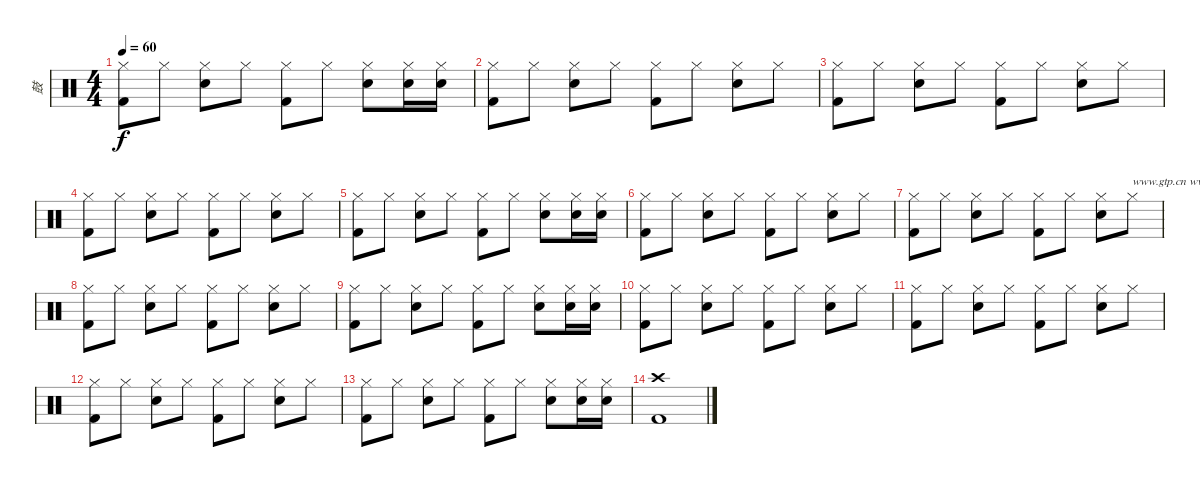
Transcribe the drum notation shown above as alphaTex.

\track ("鼓" "鼓") {instrument percussion}
\staff {score}
\articulation defaults
\ts (4 4)
\tempo 60
\clef neutral
\ks c
("Hi-Hat (closed)" "Kick (hit) 2").8{dy f} "Hi-Hat (closed)".8 ("Hi-Hat (closed)" "Snare (hit) 2").8 "Hi-Hat (closed)".8 ("Hi-Hat (closed)" "Kick (hit) 2").8 "Hi-Hat (closed)".8 ("Hi-Hat (closed)" "Snare (hit) 2").8 ("Hi-Hat (closed)" "Snare (hit) 2").16 ("Hi-Hat (closed)" "Snare (hit) 2").16 |
("Hi-Hat (closed)" "Kick (hit) 2").8 "Hi-Hat (closed)".8 ("Hi-Hat (closed)" "Snare (hit) 2").8 "Hi-Hat (closed)".8 ("Hi-Hat (closed)" "Kick (hit) 2").8 "Hi-Hat (closed)".8 ("Hi-Hat (closed)" "Snare (hit) 2").8 "Hi-Hat (closed)".8 |
("Hi-Hat (closed)" "Kick (hit) 2").8 "Hi-Hat (closed)".8 ("Hi-Hat (closed)" "Snare (hit) 2").8 "Hi-Hat (closed)".8 ("Hi-Hat (closed)" "Kick (hit) 2").8 "Hi-Hat (closed)".8 ("Hi-Hat (closed)" "Snare (hit) 2").8 "Hi-Hat (closed)".8 |
("Hi-Hat (closed)" "Kick (hit) 2").8 "Hi-Hat (closed)".8 ("Hi-Hat (closed)" "Snare (hit) 2").8 "Hi-Hat (closed)".8 ("Hi-Hat (closed)" "Kick (hit) 2").8 "Hi-Hat (closed)".8 ("Hi-Hat (closed)" "Snare (hit) 2").8 "Hi-Hat (closed)".8 |
("Hi-Hat (closed)" "Kick (hit) 2").8 "Hi-Hat (closed)".8 ("Hi-Hat (closed)" "Snare (hit) 2").8 "Hi-Hat (closed)".8 ("Hi-Hat (closed)" "Kick (hit) 2").8 "Hi-Hat (closed)".8 ("Hi-Hat (closed)" "Snare (hit) 2").8 ("Hi-Hat (closed)" "Snare (hit) 2").16 ("Hi-Hat (closed)" "Snare (hit) 2").16 |
("Hi-Hat (closed)" "Kick (hit) 2").8 "Hi-Hat (closed)".8 ("Hi-Hat (closed)" "Snare (hit) 2").8 "Hi-Hat (closed)".8 ("Hi-Hat (closed)" "Kick (hit) 2").8 "Hi-Hat (closed)".8 ("Hi-Hat (closed)" "Snare (hit) 2").8 "Hi-Hat (closed)".8 |
("Hi-Hat (closed)" "Kick (hit) 2").8 "Hi-Hat (closed)".8 ("Hi-Hat (closed)" "Snare (hit) 2").8 "Hi-Hat (closed)".8 ("Hi-Hat (closed)" "Kick (hit) 2").8 "Hi-Hat (closed)".8 ("Hi-Hat (closed)" "Snare (hit) 2").8 "Hi-Hat (closed)".8{txt "www.gtp.cn www.51gtp.com联合为您提供优秀的GTP!"} |
("Hi-Hat (closed)" "Kick (hit) 2").8 "Hi-Hat (closed)".8 ("Hi-Hat (closed)" "Snare (hit) 2").8 "Hi-Hat (closed)".8 ("Hi-Hat (closed)" "Kick (hit) 2").8 "Hi-Hat (closed)".8 ("Hi-Hat (closed)" "Snare (hit) 2").8 "Hi-Hat (closed)".8 |
("Hi-Hat (closed)" "Kick (hit) 2").8 "Hi-Hat (closed)".8 ("Hi-Hat (closed)" "Snare (hit) 2").8 "Hi-Hat (closed)".8 ("Hi-Hat (closed)" "Kick (hit) 2").8 "Hi-Hat (closed)".8 ("Hi-Hat (closed)" "Snare (hit) 2").8 ("Hi-Hat (closed)" "Snare (hit) 2").16 ("Hi-Hat (closed)" "Snare (hit) 2").16 |
("Hi-Hat (closed)" "Kick (hit) 2").8 "Hi-Hat (closed)".8 ("Hi-Hat (closed)" "Snare (hit) 2").8 "Hi-Hat (closed)".8 ("Hi-Hat (closed)" "Kick (hit) 2").8 "Hi-Hat (closed)".8 ("Hi-Hat (closed)" "Snare (hit) 2").8 "Hi-Hat (closed)".8 |
("Hi-Hat (closed)" "Kick (hit) 2").8 "Hi-Hat (closed)".8 ("Hi-Hat (closed)" "Snare (hit) 2").8 "Hi-Hat (closed)".8 ("Hi-Hat (closed)" "Kick (hit) 2").8 "Hi-Hat (closed)".8 ("Hi-Hat (closed)" "Snare (hit) 2").8 "Hi-Hat (closed)".8 |
("Hi-Hat (closed)" "Kick (hit) 2").8 "Hi-Hat (closed)".8 ("Hi-Hat (closed)" "Snare (hit) 2").8 "Hi-Hat (closed)".8 ("Hi-Hat (closed)" "Kick (hit) 2").8 "Hi-Hat (closed)".8 ("Hi-Hat (closed)" "Snare (hit) 2").8 "Hi-Hat (closed)".8 |
("Hi-Hat (closed)" "Kick (hit) 2").8 "Hi-Hat (closed)".8 ("Hi-Hat (closed)" "Snare (hit) 2").8 "Hi-Hat (closed)".8 ("Hi-Hat (closed)" "Kick (hit) 2").8 "Hi-Hat (closed)".8 ("Hi-Hat (closed)" "Snare (hit) 2").8 ("Hi-Hat (closed)" "Snare (hit) 2").16 ("Hi-Hat (closed)" "Snare (hit) 2").16 |
("Crash high (hit)" "Kick (hit) 2").1
